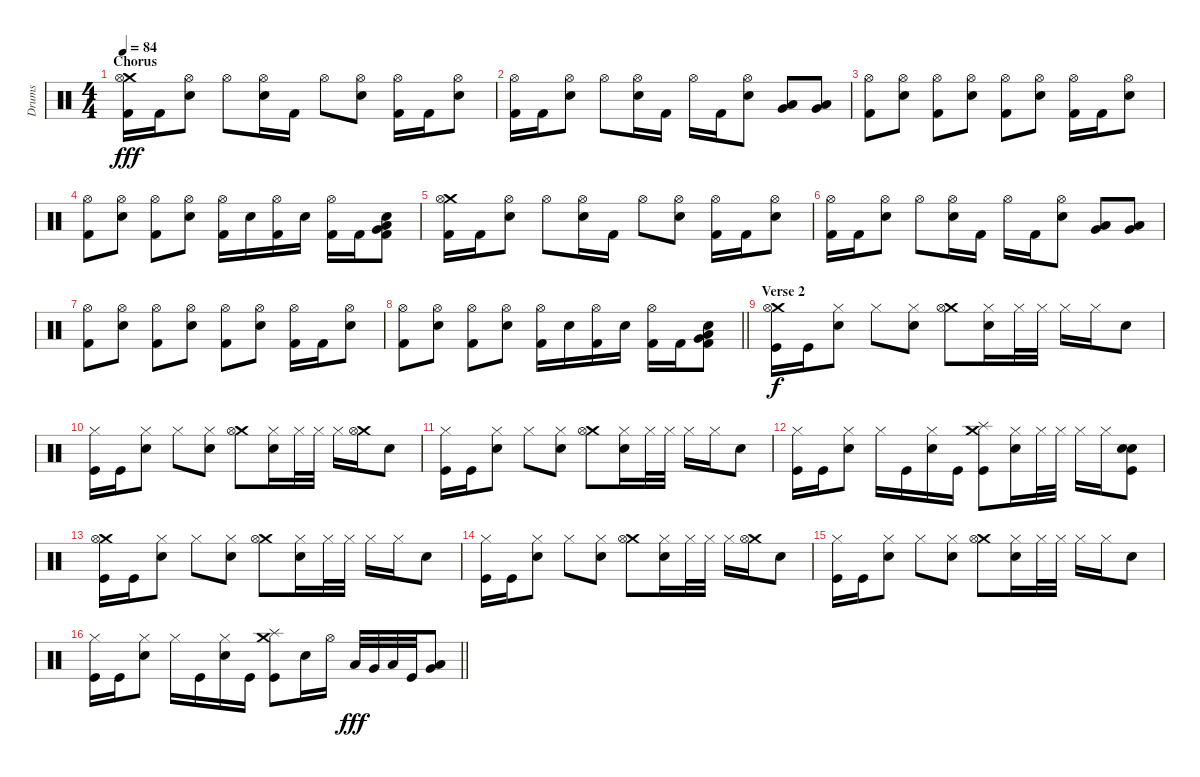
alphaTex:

\track ("Drums" "Drums") {instrument percussion}
\staff {score}
\articulation defaults
\ts (4 4)
\section ("" "Chorus")
\tempo 84
\clef neutral
\ks c
("Crash medium (hit)" "Hi-Hat (open)" "Kick (hit) 2").16{dy fff} "Kick (hit) 2".16 ("Hi-Hat (open)" "Electric Snare (hit)").8 "Hi-Hat (open)".8 ("Hi-Hat (open)" "Electric Snare (hit)").16 "Kick (hit) 2".16 "Hi-Hat (open)".8 ("Hi-Hat (open)" "Electric Snare (hit)").8 ("Hi-Hat (open)" "Kick (hit) 2").16 "Kick (hit) 2".16 ("Hi-Hat (open)" "Electric Snare (hit)").8 |
("Hi-Hat (open)" "Kick (hit) 2").16 "Kick (hit) 2".16 ("Hi-Hat (open)" "Electric Snare (hit)").8 "Hi-Hat (open)".8 ("Hi-Hat (open)" "Electric Snare (hit)").16 "Kick (hit) 2".16 "Hi-Hat (open)".16 "Kick (hit) 2".16 ("Hi-Hat (open)" "Electric Snare (hit)").8 ("Very Low Tom (hit)" "Low Tom (hit)").8 ("Low Floor Tom (hit)" "Very Low Tom (hit)").8 |
("Hi-Hat (open)" "Kick (hit) 2").8 ("Hi-Hat (open)" "Electric Snare (hit)").8 ("Hi-Hat (open)" "Kick (hit) 2").8 ("Hi-Hat (open)" "Electric Snare (hit)").8 ("Hi-Hat (open)" "Kick (hit) 2").8 ("Hi-Hat (open)" "Electric Snare (hit)").8 ("Hi-Hat (open)" "Kick (hit) 2").16 "Kick (hit) 2".16 ("Hi-Hat (open)" "Electric Snare (hit)").8 |
("Hi-Hat (open)" "Kick (hit) 2").8 ("Hi-Hat (open)" "Electric Snare (hit)").8 ("Hi-Hat (open)" "Kick (hit) 2").8 ("Hi-Hat (open)" "Electric Snare (hit)").8 ("Hi-Hat (open)" "Kick (hit) 2").16 "Electric Snare (hit)".16 ("Hi-Hat (open)" "Kick (hit) 2").16 "Electric Snare (hit)".16 ("Hi-Hat (open)" "Kick (hit) 2").16 "Kick (hit) 2".16 ("Electric Snare (hit)" "Very Low Tom (hit)" "Low Tom (hit)" "Kick (hit) 2").8 |
("Crash medium (hit)" "Hi-Hat (open)" "Kick (hit) 2").16 "Kick (hit) 2".16 ("Hi-Hat (open)" "Electric Snare (hit)").8 "Hi-Hat (open)".8 ("Hi-Hat (open)" "Electric Snare (hit)").16 "Kick (hit) 2".16 "Hi-Hat (open)".8 ("Hi-Hat (open)" "Electric Snare (hit)").8 ("Hi-Hat (open)" "Kick (hit) 2").16 "Kick (hit) 2".16 ("Hi-Hat (open)" "Electric Snare (hit)").8 |
("Hi-Hat (open)" "Kick (hit) 2").16 "Kick (hit) 2".16 ("Hi-Hat (open)" "Electric Snare (hit)").8 "Hi-Hat (open)".8 ("Hi-Hat (open)" "Electric Snare (hit)").16 "Kick (hit) 2".16 "Hi-Hat (open)".16 "Kick (hit) 2".16 ("Hi-Hat (open)" "Electric Snare (hit)").8 ("Very Low Tom (hit)" "Low Tom (hit)").8 ("Low Floor Tom (hit)" "Very Low Tom (hit)").8 |
("Hi-Hat (open)" "Kick (hit) 2").8 ("Hi-Hat (open)" "Electric Snare (hit)").8 ("Hi-Hat (open)" "Kick (hit) 2").8 ("Hi-Hat (open)" "Electric Snare (hit)").8 ("Hi-Hat (open)" "Kick (hit) 2").8 ("Hi-Hat (open)" "Electric Snare (hit)").8 ("Hi-Hat (open)" "Kick (hit) 2").16 "Kick (hit) 2".16 ("Hi-Hat (open)" "Electric Snare (hit)").8 |
\barLineRight lightlight
("Hi-Hat (open)" "Kick (hit) 2").8 ("Hi-Hat (open)" "Electric Snare (hit)").8 ("Hi-Hat (open)" "Kick (hit) 2").8 ("Hi-Hat (open)" "Electric Snare (hit)").8 ("Hi-Hat (open)" "Kick (hit) 2").16 "Electric Snare (hit)".16 ("Hi-Hat (open)" "Kick (hit) 2").16 "Electric Snare (hit)".16 ("Hi-Hat (open)" "Kick (hit) 2").16 "Kick (hit) 2".16 ("Electric Snare (hit)" "Very Low Tom (hit)" "Low Tom (hit)" "Kick (hit) 2").8 |
\section ("" "Verse 2")
("Crash medium (hit)" "Hi-Hat (open)" "Kick (hit)").16{dy f} "Kick (hit)".16 ("Hi-Hat (closed)" "Electric Snare (hit)").8 "Hi-Hat (closed)".8 ("Hi-Hat (closed)" "Electric Snare (hit)").8 ("Crash medium (hit)" "Hi-Hat (open)").8 ("Hi-Hat (closed)" "Electric Snare (hit)").16 "Hi-Hat (closed)".32 "Hi-Hat (closed)".32 "Hi-Hat (closed)".16 "Hi-Hat (closed)".16 "Electric Snare (hit)".8 |
("Hi-Hat (closed)" "Kick (hit)").16 "Kick (hit)".16 ("Hi-Hat (closed)" "Electric Snare (hit)").8 "Hi-Hat (closed)".8 ("Hi-Hat (closed)" "Electric Snare (hit)").8 ("Crash medium (hit)" "Hi-Hat (open)").8 ("Hi-Hat (closed)" "Electric Snare (hit)").16 "Hi-Hat (closed)".32 "Hi-Hat (closed)".32 "Hi-Hat (closed)".16 ("Crash medium (hit)" "Hi-Hat (open)").16 "Electric Snare (hit)".8 |
("Hi-Hat (closed)" "Kick (hit)").16 "Kick (hit)".16 ("Hi-Hat (closed)" "Electric Snare (hit)").8 "Hi-Hat (closed)".8 ("Hi-Hat (closed)" "Electric Snare (hit)").8 ("Crash medium (hit)" "Hi-Hat (open)").8 ("Hi-Hat (closed)" "Electric Snare (hit)").16 "Hi-Hat (closed)".32 "Hi-Hat (closed)".32 "Hi-Hat (closed)".16 "Hi-Hat (closed)".16 "Electric Snare (hit)".8 |
("Hi-Hat (closed)" "Kick (hit)").16 "Kick (hit)".16 ("Hi-Hat (closed)" "Electric Snare (hit)").8 "Hi-Hat (closed)".16 "Kick (hit)".16 ("Hi-Hat (closed)" "Electric Snare (hit)").16 "Kick (hit)".16 ("Crash medium (hit)" "Splash (hit)" "Kick (hit)").8 ("Hi-Hat (closed)" "Electric Snare (hit)").16 "Hi-Hat (closed)".32 "Hi-Hat (closed)".32 "Hi-Hat (closed)".16 "Hi-Hat (closed)".16 ("Electric Snare (hit)" "Electric Snare (hit)" "Kick (hit)").8 |
("Crash medium (hit)" "Hi-Hat (open)" "Kick (hit)").16 "Kick (hit)".16 ("Hi-Hat (closed)" "Electric Snare (hit)").8 "Hi-Hat (closed)".8 ("Hi-Hat (closed)" "Electric Snare (hit)").8 ("Crash medium (hit)" "Hi-Hat (open)").8 ("Hi-Hat (closed)" "Electric Snare (hit)").16 "Hi-Hat (closed)".32 "Hi-Hat (closed)".32 "Hi-Hat (closed)".16 "Hi-Hat (closed)".16 "Electric Snare (hit)".8 |
("Hi-Hat (closed)" "Kick (hit)").16 "Kick (hit)".16 ("Hi-Hat (closed)" "Electric Snare (hit)").8 "Hi-Hat (closed)".8 ("Hi-Hat (closed)" "Electric Snare (hit)").8 ("Crash medium (hit)" "Hi-Hat (open)").8 ("Hi-Hat (closed)" "Electric Snare (hit)").16 "Hi-Hat (closed)".32 "Hi-Hat (closed)".32 "Hi-Hat (closed)".16 ("Crash medium (hit)" "Hi-Hat (open)").16 "Electric Snare (hit)".8 |
("Hi-Hat (closed)" "Kick (hit)").16 "Kick (hit)".16 ("Hi-Hat (closed)" "Electric Snare (hit)").8 "Hi-Hat (closed)".8 ("Hi-Hat (closed)" "Electric Snare (hit)").8 ("Crash medium (hit)" "Hi-Hat (open)").8 ("Hi-Hat (closed)" "Electric Snare (hit)").16 "Hi-Hat (closed)".32 "Hi-Hat (closed)".32 "Hi-Hat (closed)".16 "Hi-Hat (closed)".16 "Electric Snare (hit)".8 |
\barLineRight lightlight
("Hi-Hat (closed)" "Kick (hit)").16 "Kick (hit)".16 ("Hi-Hat (closed)" "Electric Snare (hit)").8 "Hi-Hat (closed)".16 "Kick (hit)".16 ("Hi-Hat (closed)" "Electric Snare (hit)").16 "Kick (hit)".16 ("Crash medium (hit)" "Splash (hit)" "Kick (hit)").8 "Electric Snare (hit)".16 "Hi-Hat (open)".16 "Low Tom (hit)".32{dy fff} "Very Low Tom (hit)".32 "Low Floor Tom (hit)".32 "Kick (hit)".32 ("Low Tom (hit)" "Very Low Tom (hit)").8
